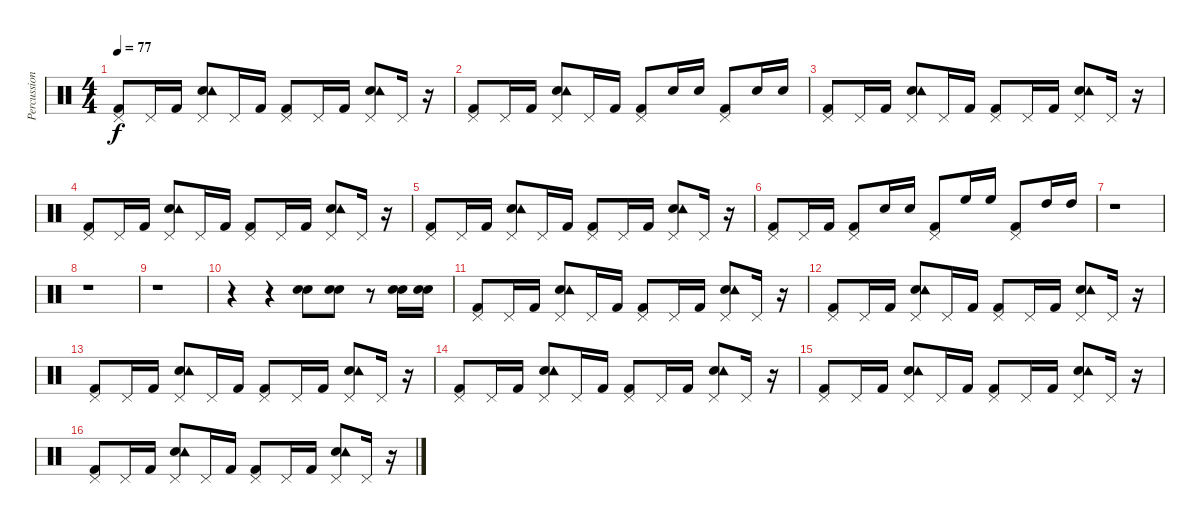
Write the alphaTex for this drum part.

\track ("Percussions" "Percussion") {instrument percussion}
\staff {score}
\articulation defaults
\ts (4 4)
\tempo 77
\clef neutral
\ks c
("Kick (hit) 2" "Pedal Hi-Hat (hit)").8{dy f} "Pedal Hi-Hat (hit)".16 "Kick (hit) 2".16 ("Snare (hit) 2" "Tambourine (hit)" "Pedal Hi-Hat (hit)").8 "Pedal Hi-Hat (hit)".16 "Kick (hit) 2".16 ("Kick (hit) 2" "Pedal Hi-Hat (hit)").8 "Pedal Hi-Hat (hit)".16 "Kick (hit) 2".16 ("Snare (hit) 2" "Tambourine (hit)" "Pedal Hi-Hat (hit)").8 "Pedal Hi-Hat (hit)".16 r.16 |
("Kick (hit) 2" "Pedal Hi-Hat (hit)").8 "Pedal Hi-Hat (hit)".16 "Kick (hit) 2".16 ("Snare (hit) 2" "Tambourine (hit)" "Pedal Hi-Hat (hit)").8 "Pedal Hi-Hat (hit)".16 "Kick (hit) 2".16 ("Kick (hit) 2" "Pedal Hi-Hat (hit)").8 "Snare (hit) 2".16 "Snare (hit) 2".16 ("Kick (hit) 2" "Pedal Hi-Hat (hit)").8 "Snare (hit) 2".16 "Snare (hit) 2".16 |
("Kick (hit) 2" "Pedal Hi-Hat (hit)").8 "Pedal Hi-Hat (hit)".16 "Kick (hit) 2".16 ("Snare (hit) 2" "Tambourine (hit)" "Pedal Hi-Hat (hit)").8 "Pedal Hi-Hat (hit)".16 "Kick (hit) 2".16 ("Kick (hit) 2" "Pedal Hi-Hat (hit)").8 "Pedal Hi-Hat (hit)".16 "Kick (hit) 2".16 ("Snare (hit) 2" "Tambourine (hit)" "Pedal Hi-Hat (hit)").8 "Pedal Hi-Hat (hit)".16 r.16 |
("Kick (hit) 2" "Pedal Hi-Hat (hit)").8 "Pedal Hi-Hat (hit)".16 "Kick (hit) 2".16 ("Snare (hit) 2" "Tambourine (hit)" "Pedal Hi-Hat (hit)").8 "Pedal Hi-Hat (hit)".16 "Kick (hit) 2".16 ("Kick (hit) 2" "Pedal Hi-Hat (hit)").8 "Pedal Hi-Hat (hit)".16 "Kick (hit) 2".16 ("Snare (hit) 2" "Tambourine (hit)" "Pedal Hi-Hat (hit)").8 "Pedal Hi-Hat (hit)".16 r.16 |
("Kick (hit) 2" "Pedal Hi-Hat (hit)").8 "Pedal Hi-Hat (hit)".16 "Kick (hit) 2".16 ("Snare (hit) 2" "Tambourine (hit)" "Pedal Hi-Hat (hit)").8 "Pedal Hi-Hat (hit)".16 "Kick (hit) 2".16 ("Kick (hit) 2" "Pedal Hi-Hat (hit)").8 "Pedal Hi-Hat (hit)".16 "Kick (hit) 2".16 ("Snare (hit) 2" "Tambourine (hit)" "Pedal Hi-Hat (hit)").8 "Pedal Hi-Hat (hit)".16 r.16 |
("Kick (hit) 2" "Pedal Hi-Hat (hit)").8 "Pedal Hi-Hat (hit)".16 "Kick (hit) 2".16 ("Kick (hit) 2" "Pedal Hi-Hat (hit)").8 "Snare (hit) 2".16 "Snare (hit) 2".16 ("Kick (hit) 2" "Pedal Hi-Hat (hit)").8 "High Floor Tom (hit)".16 "High Floor Tom (hit)".16 ("Kick (hit) 2" "Pedal Hi-Hat (hit)").8 "High Tom (hit)".16 "High Tom (hit)".16 |
r.1 |
r.1 |
r.1 |
r.4 r.4 ("Electric Snare (hit)" "Snare (hit) 2").8 ("Electric Snare (hit)" "Snare (hit) 2").8 r.8 ("Electric Snare (hit)" "Snare (hit) 2").16 ("Electric Snare (hit)" "Snare (hit) 2").16 |
("Kick (hit) 2" "Pedal Hi-Hat (hit)").8 "Pedal Hi-Hat (hit)".16 "Kick (hit) 2".16 ("Snare (hit) 2" "Tambourine (hit)" "Pedal Hi-Hat (hit)").8 "Pedal Hi-Hat (hit)".16 "Kick (hit) 2".16 ("Kick (hit) 2" "Pedal Hi-Hat (hit)").8 "Pedal Hi-Hat (hit)".16 "Kick (hit) 2".16 ("Snare (hit) 2" "Tambourine (hit)" "Pedal Hi-Hat (hit)").8 "Pedal Hi-Hat (hit)".16 r.16 |
("Kick (hit) 2" "Pedal Hi-Hat (hit)").8 "Pedal Hi-Hat (hit)".16 "Kick (hit) 2".16 ("Snare (hit) 2" "Tambourine (hit)" "Pedal Hi-Hat (hit)").8 "Pedal Hi-Hat (hit)".16 "Kick (hit) 2".16 ("Kick (hit) 2" "Pedal Hi-Hat (hit)").8 "Pedal Hi-Hat (hit)".16 "Kick (hit) 2".16 ("Snare (hit) 2" "Tambourine (hit)" "Pedal Hi-Hat (hit)").8 "Pedal Hi-Hat (hit)".16 r.16 |
("Kick (hit) 2" "Pedal Hi-Hat (hit)").8 "Pedal Hi-Hat (hit)".16 "Kick (hit) 2".16 ("Snare (hit) 2" "Tambourine (hit)" "Pedal Hi-Hat (hit)").8 "Pedal Hi-Hat (hit)".16 "Kick (hit) 2".16 ("Kick (hit) 2" "Pedal Hi-Hat (hit)").8 "Pedal Hi-Hat (hit)".16 "Kick (hit) 2".16 ("Snare (hit) 2" "Tambourine (hit)" "Pedal Hi-Hat (hit)").8 "Pedal Hi-Hat (hit)".16 r.16 |
("Kick (hit) 2" "Pedal Hi-Hat (hit)").8 "Pedal Hi-Hat (hit)".16 "Kick (hit) 2".16 ("Snare (hit) 2" "Tambourine (hit)" "Pedal Hi-Hat (hit)").8 "Pedal Hi-Hat (hit)".16 "Kick (hit) 2".16 ("Kick (hit) 2" "Pedal Hi-Hat (hit)").8 "Pedal Hi-Hat (hit)".16 "Kick (hit) 2".16 ("Snare (hit) 2" "Tambourine (hit)" "Pedal Hi-Hat (hit)").8 "Pedal Hi-Hat (hit)".16 r.16 |
("Kick (hit) 2" "Pedal Hi-Hat (hit)").8 "Pedal Hi-Hat (hit)".16 "Kick (hit) 2".16 ("Snare (hit) 2" "Tambourine (hit)" "Pedal Hi-Hat (hit)").8 "Pedal Hi-Hat (hit)".16 "Kick (hit) 2".16 ("Kick (hit) 2" "Pedal Hi-Hat (hit)").8 "Pedal Hi-Hat (hit)".16 "Kick (hit) 2".16 ("Snare (hit) 2" "Tambourine (hit)" "Pedal Hi-Hat (hit)").8 "Pedal Hi-Hat (hit)".16 r.16 |
("Kick (hit) 2" "Pedal Hi-Hat (hit)").8 "Pedal Hi-Hat (hit)".16 "Kick (hit) 2".16 ("Snare (hit) 2" "Tambourine (hit)" "Pedal Hi-Hat (hit)").8 "Pedal Hi-Hat (hit)".16 "Kick (hit) 2".16 ("Kick (hit) 2" "Pedal Hi-Hat (hit)").8 "Pedal Hi-Hat (hit)".16 "Kick (hit) 2".16 ("Snare (hit) 2" "Tambourine (hit)" "Pedal Hi-Hat (hit)").8 "Pedal Hi-Hat (hit)".16 r.16
